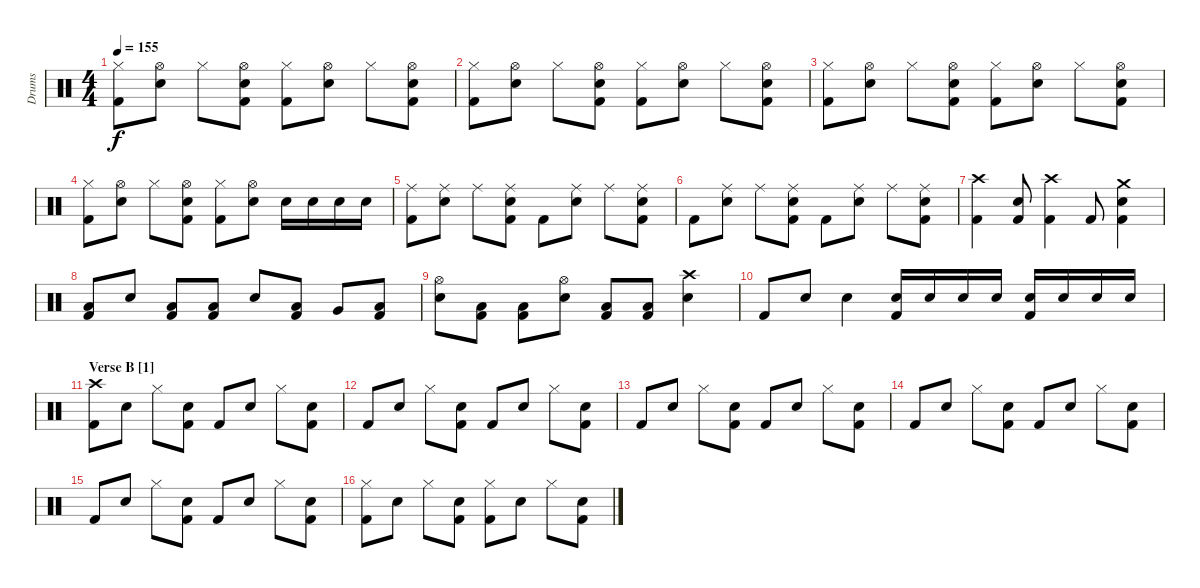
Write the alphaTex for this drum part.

\track ("Drums" "Drums") {instrument percussion}
\staff {score}
\articulation defaults
\ts (4 4)
\tempo 155
\clef neutral
\ks c
("Hi-Hat (closed)" "Kick (hit) 2").8{dy f} ("Hi-Hat (open)" "Electric Snare (hit)").8 "Hi-Hat (closed)".8 ("Hi-Hat (open)" "Electric Snare (hit)" "Kick (hit) 2").8 ("Hi-Hat (closed)" "Kick (hit) 2").8 ("Hi-Hat (open)" "Electric Snare (hit)").8 "Hi-Hat (closed)".8 ("Hi-Hat (open)" "Electric Snare (hit)" "Kick (hit) 2").8 |
("Hi-Hat (closed)" "Kick (hit) 2").8 ("Hi-Hat (open)" "Electric Snare (hit)").8 "Hi-Hat (closed)".8 ("Hi-Hat (open)" "Electric Snare (hit)" "Kick (hit) 2").8 ("Hi-Hat (closed)" "Kick (hit) 2").8 ("Hi-Hat (open)" "Electric Snare (hit)").8 "Hi-Hat (closed)".8 ("Hi-Hat (open)" "Electric Snare (hit)" "Kick (hit) 2").8 |
("Hi-Hat (closed)" "Kick (hit) 2").8 ("Hi-Hat (open)" "Electric Snare (hit)").8 "Hi-Hat (closed)".8 ("Hi-Hat (open)" "Electric Snare (hit)" "Kick (hit) 2").8 ("Hi-Hat (closed)" "Kick (hit) 2").8 ("Hi-Hat (open)" "Electric Snare (hit)").8 "Hi-Hat (closed)".8 ("Hi-Hat (open)" "Electric Snare (hit)" "Kick (hit) 2").8 |
("Hi-Hat (closed)" "Kick (hit) 2").8 ("Hi-Hat (open)" "Electric Snare (hit)").8 "Hi-Hat (closed)".8 ("Hi-Hat (open)" "Electric Snare (hit)" "Kick (hit) 2").8 ("Hi-Hat (closed)" "Kick (hit) 2").8 ("Hi-Hat (open)" "Electric Snare (hit)").8 "Electric Snare (hit)".16 "Electric Snare (hit)".16 "Electric Snare (hit)".16 "Electric Snare (hit)".16 |
("Ride (middle)" "Kick (hit) 2").8 ("Ride (middle)" "Electric Snare (hit)").8 "Ride (middle)".8 ("Ride (middle)" "Electric Snare (hit)" "Kick (hit) 2").8 "Kick (hit) 2".8 ("Ride (middle)" "Electric Snare (hit)").8 "Ride (middle)".8 ("Ride (middle)" "Electric Snare (hit)" "Kick (hit) 2").8 |
"Kick (hit) 2".8 ("Ride (middle)" "Electric Snare (hit)").8 "Ride (middle)".8 ("Ride (middle)" "Electric Snare (hit)" "Kick (hit) 2").8 "Kick (hit) 2".8 ("Ride (middle)" "Electric Snare (hit)").8 "Ride (middle)".8 ("Ride (middle)" "Electric Snare (hit)" "Kick (hit) 2").8 |
("Crash high (hit)" "Kick (hit) 2").4 ("Electric Snare (hit)" "Kick (hit) 2").8 ("Crash high (hit)" "Kick (hit) 2").4 "Kick (hit) 2".8 ("Crash medium (hit)" "Electric Snare (hit)" "Kick (hit) 2").4 |
("Low Floor Tom (hit)" "Kick (hit) 2").8 "Electric Snare (hit)".8 ("Low Floor Tom (hit)" "Kick (hit) 2").8 ("Low Floor Tom (hit)" "Kick (hit) 2").8 "Electric Snare (hit)".8 ("Low Floor Tom (hit)" "Kick (hit) 2").8 "Very Low Tom (hit)".8 ("Low Floor Tom (hit)" "Kick (hit) 2").8 |
("Hi-Hat (open)" "Electric Snare (hit)").8 ("Low Floor Tom (hit)" "Kick (hit) 2").8 ("Low Floor Tom (hit)" "Kick (hit) 2").8 ("Hi-Hat (open)" "Electric Snare (hit)").8 ("Low Floor Tom (hit)" "Kick (hit) 2").8 ("Low Floor Tom (hit)" "Kick (hit) 2").8 ("Crash high (hit)" "Electric Snare (hit)").4 |
"Kick (hit) 2".8 "Electric Snare (hit)".8 "Electric Snare (hit)".4 ("Electric Snare (hit)" "Kick (hit) 2").16 "Electric Snare (hit)".16 "Electric Snare (hit)".16 "Electric Snare (hit)".16 ("Electric Snare (hit)" "Kick (hit) 2").16 "Electric Snare (hit)".16 "Electric Snare (hit)".16 "Electric Snare (hit)".16 |
\section ("" "Verse B [1]")
("Crash high (hit)" "Kick (hit) 2").8 "Electric Snare (hit)".8 "Hi-Hat (closed)".8 ("Electric Snare (hit)" "Kick (hit) 2").8 "Kick (hit) 2".8 "Electric Snare (hit)".8 "Hi-Hat (closed)".8 ("Electric Snare (hit)" "Kick (hit) 2").8 |
"Kick (hit) 2".8 "Electric Snare (hit)".8 "Hi-Hat (closed)".8 ("Electric Snare (hit)" "Kick (hit) 2").8 "Kick (hit) 2".8 "Electric Snare (hit)".8 "Hi-Hat (closed)".8 ("Electric Snare (hit)" "Kick (hit) 2").8 |
"Kick (hit) 2".8 "Electric Snare (hit)".8 "Hi-Hat (closed)".8 ("Electric Snare (hit)" "Kick (hit) 2").8 "Kick (hit) 2".8 "Electric Snare (hit)".8 "Hi-Hat (closed)".8 ("Electric Snare (hit)" "Kick (hit) 2").8 |
"Kick (hit) 2".8 "Electric Snare (hit)".8 "Hi-Hat (closed)".8 ("Electric Snare (hit)" "Kick (hit) 2").8 "Kick (hit) 2".8 "Electric Snare (hit)".8 "Hi-Hat (closed)".8 ("Electric Snare (hit)" "Kick (hit) 2").8 |
"Kick (hit) 2".8 "Electric Snare (hit)".8 "Hi-Hat (closed)".8 ("Electric Snare (hit)" "Kick (hit) 2").8 "Kick (hit) 2".8 "Electric Snare (hit)".8 "Hi-Hat (closed)".8 ("Electric Snare (hit)" "Kick (hit) 2").8 |
("Hi-Hat (closed)" "Kick (hit) 2").8 "Electric Snare (hit)".8 "Hi-Hat (closed)".8 ("Electric Snare (hit)" "Kick (hit) 2").8 ("Hi-Hat (closed)" "Kick (hit) 2").8 "Electric Snare (hit)".8 "Hi-Hat (closed)".8 ("Electric Snare (hit)" "Kick (hit) 2").8
